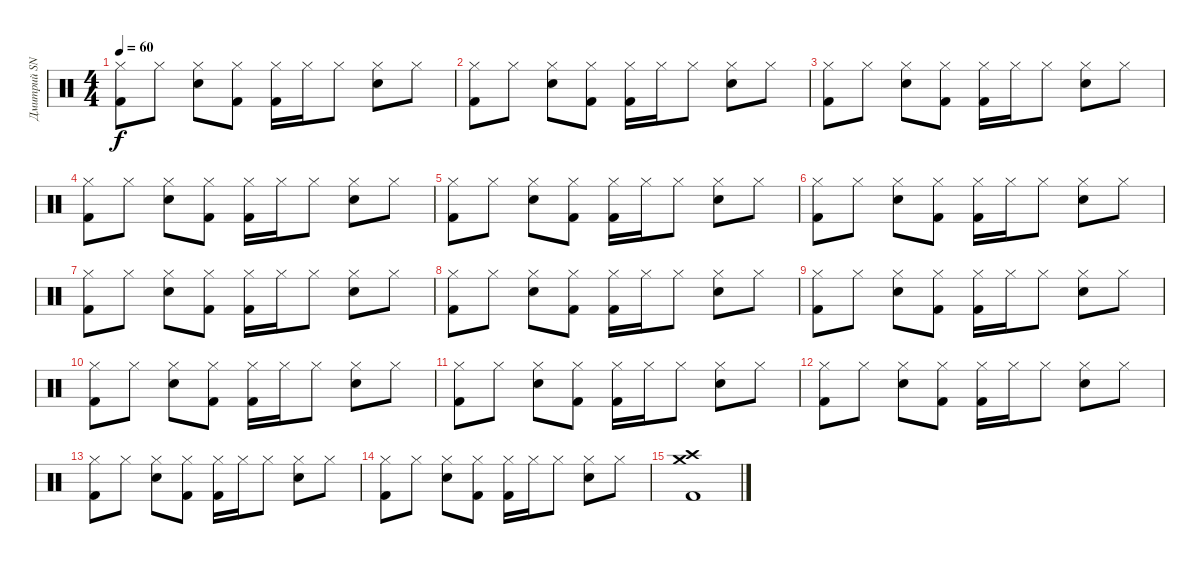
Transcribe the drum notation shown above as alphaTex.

\track ("Дмитрий SNAKE Хакимов" "Дмитрий SN") {instrument percussion}
\staff {score}
\articulation defaults
\ts (4 4)
\tempo 60
\clef neutral
\ks c
("Hi-Hat (closed)" "Kick (hit) 2").8{dy f} "Hi-Hat (closed)".8 ("Hi-Hat (closed)" "Electric Snare (hit)").8 ("Hi-Hat (closed)" "Kick (hit) 2").8 ("Hi-Hat (closed)" "Kick (hit) 2").16 "Hi-Hat (closed)".16 "Hi-Hat (closed)".8 ("Hi-Hat (closed)" "Electric Snare (hit)").8 "Hi-Hat (closed)".8 |
("Hi-Hat (closed)" "Kick (hit) 2").8 "Hi-Hat (closed)".8 ("Hi-Hat (closed)" "Electric Snare (hit)").8 ("Hi-Hat (closed)" "Kick (hit) 2").8 ("Hi-Hat (closed)" "Kick (hit) 2").16 "Hi-Hat (closed)".16 "Hi-Hat (closed)".8 ("Hi-Hat (closed)" "Electric Snare (hit)").8 "Hi-Hat (closed)".8 |
("Hi-Hat (closed)" "Kick (hit) 2").8 "Hi-Hat (closed)".8 ("Hi-Hat (closed)" "Electric Snare (hit)").8 ("Hi-Hat (closed)" "Kick (hit) 2").8 ("Hi-Hat (closed)" "Kick (hit) 2").16 "Hi-Hat (closed)".16 "Hi-Hat (closed)".8 ("Hi-Hat (closed)" "Electric Snare (hit)").8 "Hi-Hat (closed)".8 |
("Hi-Hat (closed)" "Kick (hit) 2").8 "Hi-Hat (closed)".8 ("Hi-Hat (closed)" "Electric Snare (hit)").8 ("Hi-Hat (closed)" "Kick (hit) 2").8 ("Hi-Hat (closed)" "Kick (hit) 2").16 "Hi-Hat (closed)".16 "Hi-Hat (closed)".8 ("Hi-Hat (closed)" "Electric Snare (hit)").8 "Hi-Hat (closed)".8 |
("Hi-Hat (closed)" "Kick (hit) 2").8 "Hi-Hat (closed)".8 ("Hi-Hat (closed)" "Electric Snare (hit)").8 ("Hi-Hat (closed)" "Kick (hit) 2").8 ("Hi-Hat (closed)" "Kick (hit) 2").16 "Hi-Hat (closed)".16 "Hi-Hat (closed)".8 ("Hi-Hat (closed)" "Electric Snare (hit)").8 "Hi-Hat (closed)".8 |
("Hi-Hat (closed)" "Kick (hit) 2").8 "Hi-Hat (closed)".8 ("Hi-Hat (closed)" "Electric Snare (hit)").8 ("Hi-Hat (closed)" "Kick (hit) 2").8 ("Hi-Hat (closed)" "Kick (hit) 2").16 "Hi-Hat (closed)".16 "Hi-Hat (closed)".8 ("Hi-Hat (closed)" "Electric Snare (hit)").8 "Hi-Hat (closed)".8 |
("Hi-Hat (closed)" "Kick (hit) 2").8 "Hi-Hat (closed)".8 ("Hi-Hat (closed)" "Electric Snare (hit)").8 ("Hi-Hat (closed)" "Kick (hit) 2").8 ("Hi-Hat (closed)" "Kick (hit) 2").16 "Hi-Hat (closed)".16 "Hi-Hat (closed)".8 ("Hi-Hat (closed)" "Electric Snare (hit)").8 "Hi-Hat (closed)".8 |
("Hi-Hat (closed)" "Kick (hit) 2").8 "Hi-Hat (closed)".8 ("Hi-Hat (closed)" "Electric Snare (hit)").8 ("Hi-Hat (closed)" "Kick (hit) 2").8 ("Hi-Hat (closed)" "Kick (hit) 2").16 "Hi-Hat (closed)".16 "Hi-Hat (closed)".8 ("Hi-Hat (closed)" "Electric Snare (hit)").8 "Hi-Hat (closed)".8 |
("Hi-Hat (closed)" "Kick (hit) 2").8 "Hi-Hat (closed)".8 ("Hi-Hat (closed)" "Electric Snare (hit)").8 ("Hi-Hat (closed)" "Kick (hit) 2").8 ("Hi-Hat (closed)" "Kick (hit) 2").16 "Hi-Hat (closed)".16 "Hi-Hat (closed)".8 ("Hi-Hat (closed)" "Electric Snare (hit)").8 "Hi-Hat (closed)".8 |
("Hi-Hat (closed)" "Kick (hit) 2").8 "Hi-Hat (closed)".8 ("Hi-Hat (closed)" "Electric Snare (hit)").8 ("Hi-Hat (closed)" "Kick (hit) 2").8 ("Hi-Hat (closed)" "Kick (hit) 2").16 "Hi-Hat (closed)".16 "Hi-Hat (closed)".8 ("Hi-Hat (closed)" "Electric Snare (hit)").8 "Hi-Hat (closed)".8 |
("Hi-Hat (closed)" "Kick (hit) 2").8 "Hi-Hat (closed)".8 ("Hi-Hat (closed)" "Electric Snare (hit)").8 ("Hi-Hat (closed)" "Kick (hit) 2").8 ("Hi-Hat (closed)" "Kick (hit) 2").16 "Hi-Hat (closed)".16 "Hi-Hat (closed)".8 ("Hi-Hat (closed)" "Electric Snare (hit)").8 "Hi-Hat (closed)".8 |
("Hi-Hat (closed)" "Kick (hit) 2").8 "Hi-Hat (closed)".8 ("Hi-Hat (closed)" "Electric Snare (hit)").8 ("Hi-Hat (closed)" "Kick (hit) 2").8 ("Hi-Hat (closed)" "Kick (hit) 2").16 "Hi-Hat (closed)".16 "Hi-Hat (closed)".8 ("Hi-Hat (closed)" "Electric Snare (hit)").8 "Hi-Hat (closed)".8 |
("Hi-Hat (closed)" "Kick (hit) 2").8 "Hi-Hat (closed)".8 ("Hi-Hat (closed)" "Electric Snare (hit)").8 ("Hi-Hat (closed)" "Kick (hit) 2").8 ("Hi-Hat (closed)" "Kick (hit) 2").16 "Hi-Hat (closed)".16 "Hi-Hat (closed)".8 ("Hi-Hat (closed)" "Electric Snare (hit)").8 "Hi-Hat (closed)".8 |
("Hi-Hat (closed)" "Kick (hit) 2").8 "Hi-Hat (closed)".8 ("Hi-Hat (closed)" "Electric Snare (hit)").8 ("Hi-Hat (closed)" "Kick (hit) 2").8 ("Hi-Hat (closed)" "Kick (hit) 2").16 "Hi-Hat (closed)".16 "Hi-Hat (closed)".8 ("Hi-Hat (closed)" "Electric Snare (hit)").8 "Hi-Hat (closed)".8 |
("Crash high (hit)" "Crash medium (hit)" "Kick (hit) 2").1
